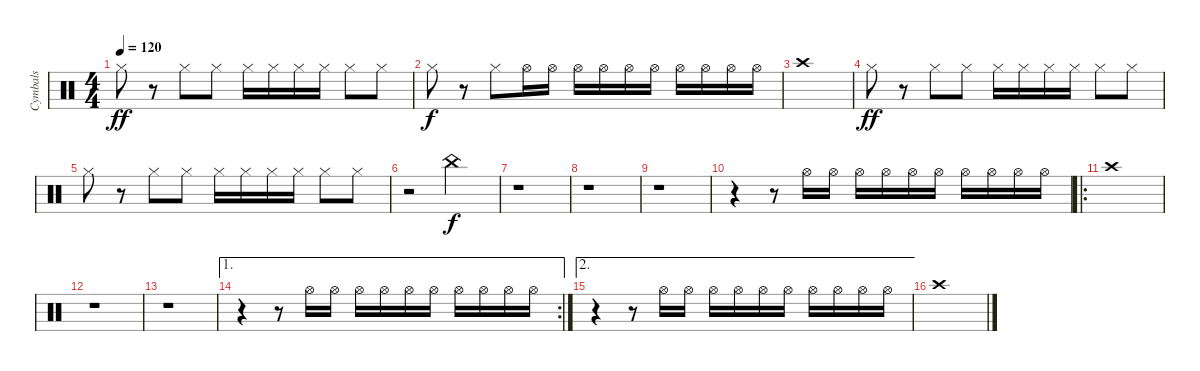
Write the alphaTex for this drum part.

\track ("Cymbals" "Cymbals") {instrument percussion}
\staff {score}
\articulation defaults
\ts (4 4)
\tempo 120
\clef neutral
\ks c "Hi-Hat (closed)".8{dy ff}
r.8 "Hi-Hat (closed)".8 "Hi-Hat (closed)".8 "Hi-Hat (closed)".16 "Hi-Hat (closed)".16 "Hi-Hat (closed)".16 "Hi-Hat (closed)".16 "Hi-Hat (closed)".8 "Hi-Hat (closed)".8 |
"Hi-Hat (closed)".8{dy f} r.8 "Hi-Hat (closed)".8 "Hi-Hat (open)".16 "Hi-Hat (open)".16 "Hi-Hat (open)".16 "Hi-Hat (open)".16 "Hi-Hat (open)".16 "Hi-Hat (open)".16 "Hi-Hat (open)".16 "Hi-Hat (open)".16 "Hi-Hat (open)".16 "Hi-Hat (open)".16 |
"Crash high (hit)".1 |
"Hi-Hat (closed)".8{dy ff} r.8 "Hi-Hat (closed)".8 "Hi-Hat (closed)".8 "Hi-Hat (closed)".16 "Hi-Hat (closed)".16 "Hi-Hat (closed)".16 "Hi-Hat (closed)".16 "Hi-Hat (closed)".8 "Hi-Hat (closed)".8 |
"Hi-Hat (closed)".8 r.8 "Hi-Hat (closed)".8 "Hi-Hat (closed)".8 "Hi-Hat (closed)".16 "Hi-Hat (closed)".16 "Hi-Hat (closed)".16 "Hi-Hat (closed)".16 "Hi-Hat (closed)".8 "Hi-Hat (closed)".8 |
r.2 "China (hit)".2{dy f} |
r.1 |
r.1 |
r.1 |
r.4 r.8 "Hi-Hat (open)".16 "Hi-Hat (open)".16 "Hi-Hat (open)".16 "Hi-Hat (open)".16 "Hi-Hat (open)".16 "Hi-Hat (open)".16 "Hi-Hat (open)".16 "Hi-Hat (open)".16 "Hi-Hat (open)".16 "Hi-Hat (open)".16 |
\ro "Crash high (hit)".1
|
r.1 |
r.1 |
\ae 1
\rc 2
r.4 r.8 "Hi-Hat (open)".16 "Hi-Hat (open)".16 "Hi-Hat (open)".16 "Hi-Hat (open)".16 "Hi-Hat (open)".16 "Hi-Hat (open)".16 "Hi-Hat (open)".16 "Hi-Hat (open)".16 "Hi-Hat (open)".16 "Hi-Hat (open)".16 |
\ae 2
r.4 r.8 "Hi-Hat (open)".16 "Hi-Hat (open)".16 "Hi-Hat (open)".16 "Hi-Hat (open)".16 "Hi-Hat (open)".16 "Hi-Hat (open)".16 "Hi-Hat (open)".16 "Hi-Hat (open)".16 "Hi-Hat (open)".16 "Hi-Hat (open)".16 |
"Crash high (hit)".1
